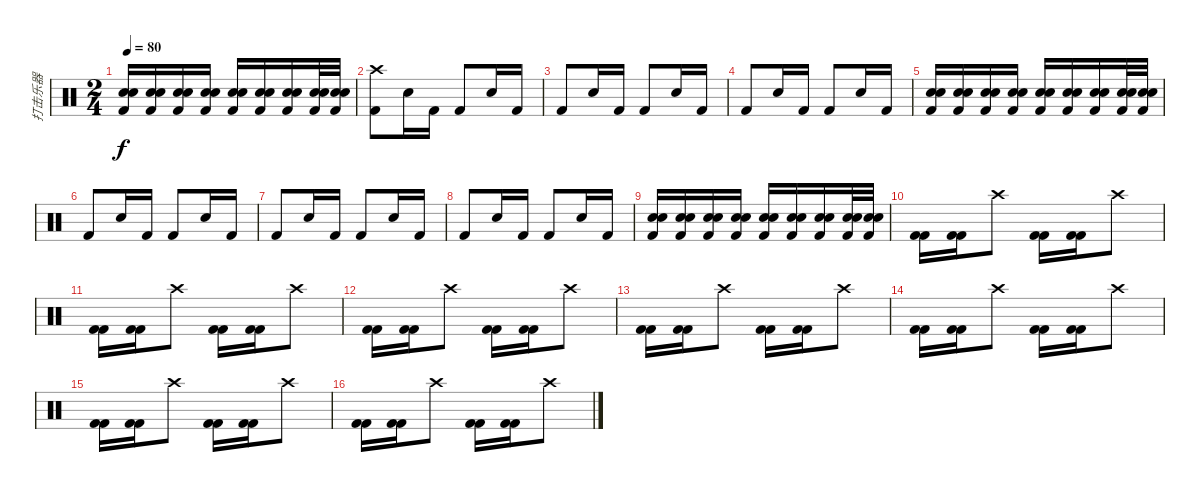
\track ("打击乐器" "打击乐器") {instrument percussion}
\staff {score}
\articulation defaults
\ts (2 4)
\tempo 80
\clef neutral
\ks c
("Electric Snare (hit)" "Electric Snare (hit)" "Kick (hit) 2").16{dy f} ("Electric Snare (hit)" "Electric Snare (hit)" "Kick (hit) 2").16 ("Electric Snare (hit)" "Electric Snare (hit)" "Kick (hit) 2").16 ("Electric Snare (hit)" "Electric Snare (hit)" "Kick (hit) 2").16 ("Electric Snare (hit)" "Electric Snare (hit)" "Kick (hit) 2").16 ("Electric Snare (hit)" "Electric Snare (hit)" "Kick (hit) 2").16 ("Electric Snare (hit)" "Electric Snare (hit)" "Kick (hit) 2").16 ("Electric Snare (hit)" "Electric Snare (hit)" "Kick (hit) 2").32 ("Electric Snare (hit)" "Electric Snare (hit)" "Kick (hit) 2").32 |
("Crash high (hit)" "Kick (hit) 2").8 "Electric Snare (hit)".16 "Kick (hit) 2".16 "Kick (hit) 2".8 "Electric Snare (hit)".16 "Kick (hit) 2".16 |
"Kick (hit) 2".8 "Electric Snare (hit)".16 "Kick (hit) 2".16 "Kick (hit) 2".8 "Electric Snare (hit)".16 "Kick (hit) 2".16 |
"Kick (hit) 2".8 "Electric Snare (hit)".16 "Kick (hit) 2".16 "Kick (hit) 2".8 "Electric Snare (hit)".16 "Kick (hit) 2".16 |
("Electric Snare (hit)" "Electric Snare (hit)" "Kick (hit) 2").16 ("Electric Snare (hit)" "Electric Snare (hit)" "Kick (hit) 2").16 ("Electric Snare (hit)" "Electric Snare (hit)" "Kick (hit) 2").16 ("Electric Snare (hit)" "Electric Snare (hit)" "Kick (hit) 2").16 ("Electric Snare (hit)" "Electric Snare (hit)" "Kick (hit) 2").16 ("Electric Snare (hit)" "Electric Snare (hit)" "Kick (hit) 2").16 ("Electric Snare (hit)" "Electric Snare (hit)" "Kick (hit) 2").16 ("Electric Snare (hit)" "Electric Snare (hit)" "Kick (hit) 2").32 ("Electric Snare (hit)" "Electric Snare (hit)" "Kick (hit) 2").32 |
"Kick (hit) 2".8 "Electric Snare (hit)".16 "Kick (hit) 2".16 "Kick (hit) 2".8 "Electric Snare (hit)".16 "Kick (hit) 2".16 |
"Kick (hit) 2".8 "Electric Snare (hit)".16 "Kick (hit) 2".16 "Kick (hit) 2".8 "Electric Snare (hit)".16 "Kick (hit) 2".16 |
"Kick (hit) 2".8 "Electric Snare (hit)".16 "Kick (hit) 2".16 "Kick (hit) 2".8 "Electric Snare (hit)".16 "Kick (hit) 2".16 |
("Electric Snare (hit)" "Electric Snare (hit)" "Kick (hit) 2").16 ("Electric Snare (hit)" "Electric Snare (hit)" "Kick (hit) 2").16 ("Electric Snare (hit)" "Electric Snare (hit)" "Kick (hit) 2").16 ("Electric Snare (hit)" "Electric Snare (hit)" "Kick (hit) 2").16 ("Electric Snare (hit)" "Electric Snare (hit)" "Kick (hit) 2").16 ("Electric Snare (hit)" "Electric Snare (hit)" "Kick (hit) 2").16 ("Electric Snare (hit)" "Electric Snare (hit)" "Kick (hit) 2").16 ("Electric Snare (hit)" "Electric Snare (hit)" "Kick (hit) 2").32 ("Electric Snare (hit)" "Electric Snare (hit)" "Kick (hit) 2").32 |
("Kick (hit) 2" "Kick (hit) 2").16 ("Kick (hit) 2" "Kick (hit) 2").16 "Crash high (hit)".8 ("Kick (hit) 2" "Kick (hit) 2").16 ("Kick (hit) 2" "Kick (hit) 2").16 "Crash high (hit)".8 |
("Kick (hit) 2" "Kick (hit) 2").16 ("Kick (hit) 2" "Kick (hit) 2").16 "Crash high (hit)".8 ("Kick (hit) 2" "Kick (hit) 2").16 ("Kick (hit) 2" "Kick (hit) 2").16 "Crash high (hit)".8 |
("Kick (hit) 2" "Kick (hit) 2").16 ("Kick (hit) 2" "Kick (hit) 2").16 "Crash high (hit)".8 ("Kick (hit) 2" "Kick (hit) 2").16 ("Kick (hit) 2" "Kick (hit) 2").16 "Crash high (hit)".8 |
("Kick (hit) 2" "Kick (hit) 2").16 ("Kick (hit) 2" "Kick (hit) 2").16 "Crash high (hit)".8 ("Kick (hit) 2" "Kick (hit) 2").16 ("Kick (hit) 2" "Kick (hit) 2").16 "Crash high (hit)".8 |
("Kick (hit) 2" "Kick (hit) 2").16 ("Kick (hit) 2" "Kick (hit) 2").16 "Crash high (hit)".8 ("Kick (hit) 2" "Kick (hit) 2").16 ("Kick (hit) 2" "Kick (hit) 2").16 "Crash high (hit)".8 |
("Kick (hit) 2" "Kick (hit) 2").16 ("Kick (hit) 2" "Kick (hit) 2").16 "Crash high (hit)".8 ("Kick (hit) 2" "Kick (hit) 2").16 ("Kick (hit) 2" "Kick (hit) 2").16 "Crash high (hit)".8 |
("Kick (hit) 2" "Kick (hit) 2").16 ("Kick (hit) 2" "Kick (hit) 2").16 "Crash high (hit)".8 ("Kick (hit) 2" "Kick (hit) 2").16 ("Kick (hit) 2" "Kick (hit) 2").16 "Crash high (hit)".8
